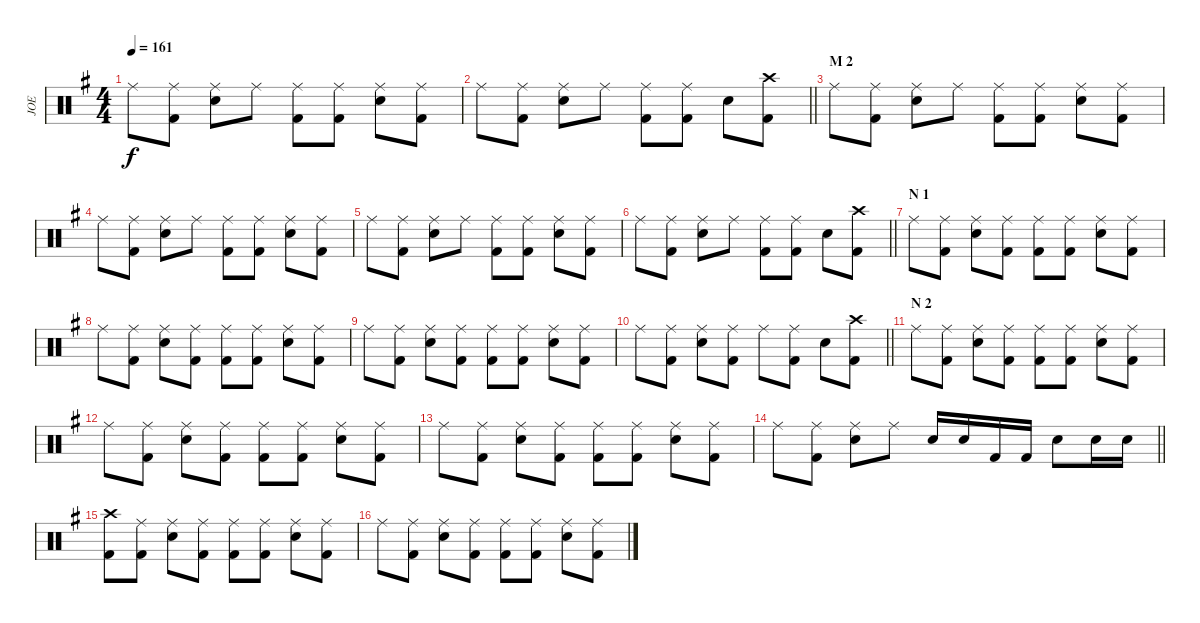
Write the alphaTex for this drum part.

\track ("JOE" "JOE") {instrument percussion}
\staff {score}
\articulation defaults
\ts (4 4)
\tempo 161
\clef neutral
\ks g "Ride (middle)".8{dy f}
("Ride (middle)" "Kick (hit) 2").8 ("Ride (middle)" "Snare (hit) 2").8 "Ride (middle)".8 ("Ride (middle)" "Kick (hit) 2").8 ("Ride (middle)" "Kick (hit) 2").8 ("Ride (middle)" "Snare (hit) 2").8 ("Ride (middle)" "Kick (hit) 2").8 |
\barLineRight lightlight "Ride (middle)".8
("Ride (middle)" "Kick (hit) 2").8 ("Ride (middle)" "Snare (hit) 2").8 "Ride (middle)".8 ("Ride (middle)" "Kick (hit) 2").8 ("Ride (middle)" "Kick (hit) 2").8 "Snare (hit) 2".8 ("Crash high (hit)" "Kick (hit) 2").8 |
\section ("" "M 2")
"Ride (middle)".8 ("Ride (middle)" "Kick (hit) 2").8 ("Ride (middle)" "Snare (hit) 2").8 "Ride (middle)".8 ("Ride (middle)" "Kick (hit) 2").8 ("Ride (middle)" "Kick (hit) 2").8 ("Ride (middle)" "Snare (hit) 2").8 ("Ride (middle)" "Kick (hit) 2").8 |
"Ride (middle)".8 ("Ride (middle)" "Kick (hit) 2").8 ("Ride (middle)" "Snare (hit) 2").8 "Ride (middle)".8 ("Ride (middle)" "Kick (hit) 2").8 ("Ride (middle)" "Kick (hit) 2").8 ("Ride (middle)" "Snare (hit) 2").8 ("Ride (middle)" "Kick (hit) 2").8 |
"Ride (middle)".8 ("Ride (middle)" "Kick (hit) 2").8 ("Ride (middle)" "Snare (hit) 2").8 "Ride (middle)".8 ("Ride (middle)" "Kick (hit) 2").8 ("Ride (middle)" "Kick (hit) 2").8 ("Ride (middle)" "Snare (hit) 2").8 ("Ride (middle)" "Kick (hit) 2").8 |
\barLineRight lightlight "Ride (middle)".8
("Ride (middle)" "Kick (hit) 2").8 ("Ride (middle)" "Snare (hit) 2").8 "Ride (middle)".8 ("Ride (middle)" "Kick (hit) 2").8 ("Ride (middle)" "Kick (hit) 2").8 "Snare (hit) 2".8 ("Crash high (hit)" "Kick (hit) 2").8 |
\section ("" "N 1")
"Ride (middle)".8 ("Ride (middle)" "Kick (hit) 2").8 ("Ride (middle)" "Snare (hit) 2").8 ("Kick (hit) 2" "Ride (middle)").8 ("Ride (middle)" "Kick (hit) 2").8 ("Ride (middle)" "Kick (hit) 2").8 ("Ride (middle)" "Snare (hit) 2").8 ("Ride (middle)" "Kick (hit) 2").8 |
"Ride (middle)".8 ("Ride (middle)" "Kick (hit) 2").8 ("Ride (middle)" "Snare (hit) 2").8 ("Kick (hit) 2" "Ride (middle)").8 ("Ride (middle)" "Kick (hit) 2").8 ("Ride (middle)" "Kick (hit) 2").8 ("Ride (middle)" "Snare (hit) 2").8 ("Ride (middle)" "Kick (hit) 2").8 |
"Ride (middle)".8 ("Ride (middle)" "Kick (hit) 2").8 ("Ride (middle)" "Snare (hit) 2").8 ("Kick (hit) 2" "Ride (middle)").8 ("Ride (middle)" "Kick (hit) 2").8 ("Ride (middle)" "Kick (hit) 2").8 ("Ride (middle)" "Snare (hit) 2").8 ("Ride (middle)" "Kick (hit) 2").8 |
\barLineRight lightlight "Ride (middle)".8
("Ride (middle)" "Kick (hit) 2").8 ("Ride (middle)" "Snare (hit) 2").8 ("Kick (hit) 2" "Ride (middle)").8 "Ride (middle)".8 ("Ride (middle)" "Kick (hit) 2").8 "Snare (hit) 2".8 ("Crash high (hit)" "Kick (hit) 2").8 |
\section ("" "N 2")
"Ride (middle)".8 ("Ride (middle)" "Kick (hit) 2").8 ("Ride (middle)" "Snare (hit) 2").8 ("Kick (hit) 2" "Ride (middle)").8 ("Ride (middle)" "Kick (hit) 2").8 ("Ride (middle)" "Kick (hit) 2").8 ("Ride (middle)" "Snare (hit) 2").8 ("Ride (middle)" "Kick (hit) 2").8 |
"Ride (middle)".8 ("Ride (middle)" "Kick (hit) 2").8 ("Ride (middle)" "Snare (hit) 2").8 ("Kick (hit) 2" "Ride (middle)").8 ("Ride (middle)" "Kick (hit) 2").8 ("Ride (middle)" "Kick (hit) 2").8 ("Ride (middle)" "Snare (hit) 2").8 ("Ride (middle)" "Kick (hit) 2").8 |
"Ride (middle)".8 ("Ride (middle)" "Kick (hit) 2").8 ("Ride (middle)" "Snare (hit) 2").8 ("Kick (hit) 2" "Ride (middle)").8 ("Ride (middle)" "Kick (hit) 2").8 ("Ride (middle)" "Kick (hit) 2").8 ("Ride (middle)" "Snare (hit) 2").8 ("Ride (middle)" "Kick (hit) 2").8 |
\barLineRight lightlight "Ride (middle)".8
("Ride (middle)" "Kick (hit) 2").8 ("Ride (middle)" "Snare (hit) 2").8 "Ride (middle)".8 "Snare (hit) 2".16 "Snare (hit) 2".16 "Kick (hit) 2".16 "Kick (hit) 2".16 "Snare (hit) 2".8 "Snare (hit) 2".16 "Snare (hit) 2".16 |
("Crash high (hit)" "Kick (hit) 2").8 ("Ride (middle)" "Kick (hit) 2").8 ("Ride (middle)" "Snare (hit) 2").8 ("Kick (hit) 2" "Ride (middle)").8 ("Ride (middle)" "Kick (hit) 2").8 ("Ride (middle)" "Kick (hit) 2").8 ("Ride (middle)" "Snare (hit) 2").8 ("Ride (middle)" "Kick (hit) 2").8 |
"Ride (middle)".8 ("Ride (middle)" "Kick (hit) 2").8 ("Ride (middle)" "Snare (hit) 2").8 ("Kick (hit) 2" "Ride (middle)").8 ("Ride (middle)" "Kick (hit) 2").8 ("Ride (middle)" "Kick (hit) 2").8 ("Ride (middle)" "Snare (hit) 2").8 ("Ride (middle)" "Kick (hit) 2").8
